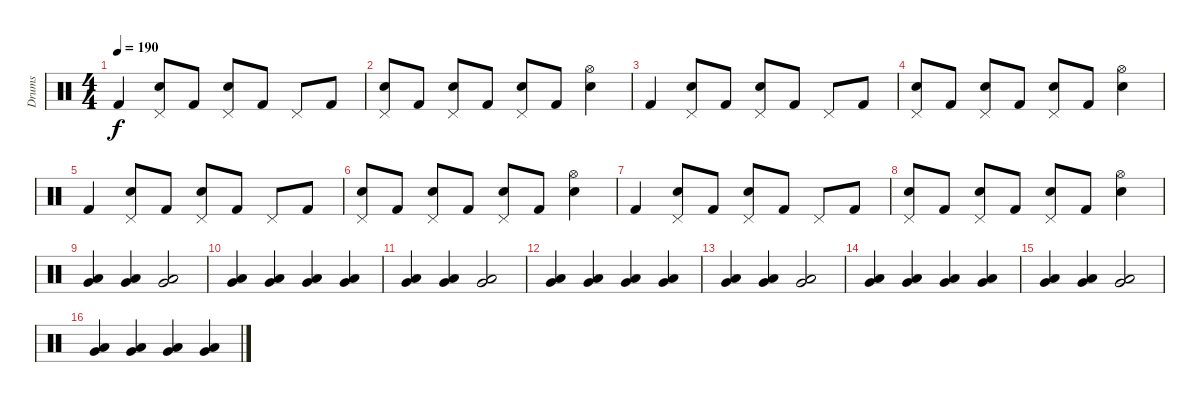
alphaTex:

\track ("Drums" "Drums") {instrument percussion}
\staff {score}
\articulation defaults
\ts (4 4)
\tempo 190
\clef neutral
\ks c "Kick (hit) 2".4{dy f}
("Pedal Hi-Hat (hit)" "Snare (hit) 2").8 "Kick (hit) 2".8 ("Pedal Hi-Hat (hit)" "Snare (hit) 2").8 "Kick (hit) 2".8 "Pedal Hi-Hat (hit)".8 "Kick (hit) 2".8 |
("Pedal Hi-Hat (hit)" "Snare (hit) 2").8 "Kick (hit) 2".8 ("Pedal Hi-Hat (hit)" "Snare (hit) 2").8 "Kick (hit) 2".8 ("Pedal Hi-Hat (hit)" "Snare (hit) 2").8 "Kick (hit) 2".8 ("Hi-Hat (open)" "Snare (hit) 2").4 |
"Kick (hit) 2".4 ("Pedal Hi-Hat (hit)" "Snare (hit) 2").8 "Kick (hit) 2".8 ("Pedal Hi-Hat (hit)" "Snare (hit) 2").8 "Kick (hit) 2".8 "Pedal Hi-Hat (hit)".8 "Kick (hit) 2".8 |
("Pedal Hi-Hat (hit)" "Snare (hit) 2").8 "Kick (hit) 2".8 ("Pedal Hi-Hat (hit)" "Snare (hit) 2").8 "Kick (hit) 2".8 ("Pedal Hi-Hat (hit)" "Snare (hit) 2").8 "Kick (hit) 2".8 ("Hi-Hat (open)" "Snare (hit) 2").4 |
"Kick (hit) 2".4 ("Pedal Hi-Hat (hit)" "Snare (hit) 2").8 "Kick (hit) 2".8 ("Pedal Hi-Hat (hit)" "Snare (hit) 2").8 "Kick (hit) 2".8 "Pedal Hi-Hat (hit)".8 "Kick (hit) 2".8 |
("Pedal Hi-Hat (hit)" "Snare (hit) 2").8 "Kick (hit) 2".8 ("Pedal Hi-Hat (hit)" "Snare (hit) 2").8 "Kick (hit) 2".8 ("Pedal Hi-Hat (hit)" "Snare (hit) 2").8 "Kick (hit) 2".8 ("Hi-Hat (open)" "Snare (hit) 2").4 |
"Kick (hit) 2".4 ("Pedal Hi-Hat (hit)" "Snare (hit) 2").8 "Kick (hit) 2".8 ("Pedal Hi-Hat (hit)" "Snare (hit) 2").8 "Kick (hit) 2".8 "Pedal Hi-Hat (hit)".8 "Kick (hit) 2".8 |
("Pedal Hi-Hat (hit)" "Snare (hit) 2").8 "Kick (hit) 2".8 ("Pedal Hi-Hat (hit)" "Snare (hit) 2").8 "Kick (hit) 2".8 ("Pedal Hi-Hat (hit)" "Snare (hit) 2").8 "Kick (hit) 2".8 ("Hi-Hat (open)" "Snare (hit) 2").4 |
("Very Low Tom (hit)" "Low Tom (hit)").4 ("Very Low Tom (hit)" "Low Tom (hit)").4 ("Very Low Tom (hit)" "Low Tom (hit)").2 |
("Very Low Tom (hit)" "Low Tom (hit)").4 ("Very Low Tom (hit)" "Low Tom (hit)").4 ("Very Low Tom (hit)" "Low Tom (hit)").4 ("Very Low Tom (hit)" "Low Tom (hit)").4 |
("Very Low Tom (hit)" "Low Tom (hit)").4 ("Very Low Tom (hit)" "Low Tom (hit)").4 ("Very Low Tom (hit)" "Low Tom (hit)").2 |
("Very Low Tom (hit)" "Low Tom (hit)").4 ("Very Low Tom (hit)" "Low Tom (hit)").4 ("Very Low Tom (hit)" "Low Tom (hit)").4 ("Very Low Tom (hit)" "Low Tom (hit)").4 |
("Very Low Tom (hit)" "Low Tom (hit)").4 ("Very Low Tom (hit)" "Low Tom (hit)").4 ("Very Low Tom (hit)" "Low Tom (hit)").2 |
("Very Low Tom (hit)" "Low Tom (hit)").4 ("Very Low Tom (hit)" "Low Tom (hit)").4 ("Very Low Tom (hit)" "Low Tom (hit)").4 ("Very Low Tom (hit)" "Low Tom (hit)").4 |
("Very Low Tom (hit)" "Low Tom (hit)").4 ("Very Low Tom (hit)" "Low Tom (hit)").4 ("Very Low Tom (hit)" "Low Tom (hit)").2 |
("Very Low Tom (hit)" "Low Tom (hit)").4 ("Very Low Tom (hit)" "Low Tom (hit)").4 ("Very Low Tom (hit)" "Low Tom (hit)").4 ("Very Low Tom (hit)" "Low Tom (hit)").4
